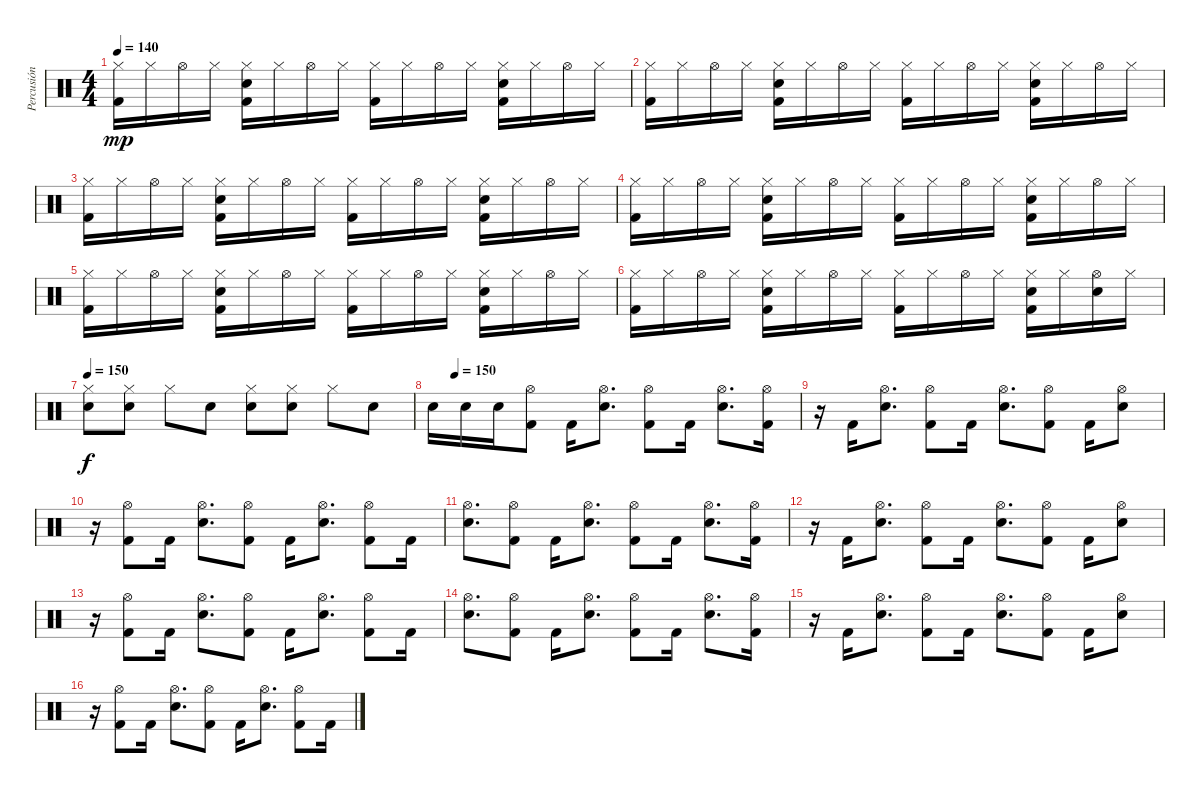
\track ("Percusión" "Percusión") {instrument percussion}
\staff {score}
\articulation defaults
\ts (4 4)
\tempo 140
\clef neutral
\ks c
("Hi-Hat (closed)" "Kick (hit) 2").16{dy mp} "Hi-Hat (closed)".16 "Hi-Hat (open)".16 "Hi-Hat (closed)".16 ("Hi-Hat (closed)" "Electric Snare (hit)" "Kick (hit) 2").16 "Hi-Hat (closed)".16 "Hi-Hat (open)".16 "Hi-Hat (closed)".16 ("Hi-Hat (closed)" "Kick (hit) 2").16 "Hi-Hat (closed)".16 "Hi-Hat (open)".16 "Hi-Hat (closed)".16 ("Hi-Hat (closed)" "Electric Snare (hit)" "Kick (hit) 2").16 "Hi-Hat (closed)".16 "Hi-Hat (open)".16 "Hi-Hat (closed)".16 |
("Hi-Hat (closed)" "Kick (hit) 2").16 "Hi-Hat (closed)".16 "Hi-Hat (open)".16 "Hi-Hat (closed)".16 ("Hi-Hat (closed)" "Electric Snare (hit)" "Kick (hit) 2").16 "Hi-Hat (closed)".16 "Hi-Hat (open)".16 "Hi-Hat (closed)".16 ("Hi-Hat (closed)" "Kick (hit) 2").16 "Hi-Hat (closed)".16 "Hi-Hat (open)".16 "Hi-Hat (closed)".16 ("Hi-Hat (closed)" "Electric Snare (hit)" "Kick (hit) 2").16 "Hi-Hat (closed)".16 "Hi-Hat (open)".16 "Hi-Hat (closed)".16 |
("Hi-Hat (closed)" "Kick (hit) 2").16 "Hi-Hat (closed)".16 "Hi-Hat (open)".16 "Hi-Hat (closed)".16 ("Hi-Hat (closed)" "Electric Snare (hit)" "Kick (hit) 2").16 "Hi-Hat (closed)".16 "Hi-Hat (open)".16 "Hi-Hat (closed)".16 ("Hi-Hat (closed)" "Kick (hit) 2").16 "Hi-Hat (closed)".16 "Hi-Hat (open)".16 "Hi-Hat (closed)".16 ("Hi-Hat (closed)" "Electric Snare (hit)" "Kick (hit) 2").16 "Hi-Hat (closed)".16 "Hi-Hat (open)".16 "Hi-Hat (closed)".16 |
("Hi-Hat (closed)" "Kick (hit) 2").16 "Hi-Hat (closed)".16 "Hi-Hat (open)".16 "Hi-Hat (closed)".16 ("Hi-Hat (closed)" "Electric Snare (hit)" "Kick (hit) 2").16 "Hi-Hat (closed)".16 "Hi-Hat (open)".16 "Hi-Hat (closed)".16 ("Hi-Hat (closed)" "Kick (hit) 2").16 "Hi-Hat (closed)".16 "Hi-Hat (open)".16 "Hi-Hat (closed)".16 ("Hi-Hat (closed)" "Electric Snare (hit)" "Kick (hit) 2").16 "Hi-Hat (closed)".16 "Hi-Hat (open)".16 "Hi-Hat (closed)".16 |
("Hi-Hat (closed)" "Kick (hit) 2").16 "Hi-Hat (closed)".16 "Hi-Hat (open)".16 "Hi-Hat (closed)".16 ("Hi-Hat (closed)" "Electric Snare (hit)" "Kick (hit) 2").16 "Hi-Hat (closed)".16 "Hi-Hat (open)".16 "Hi-Hat (closed)".16 ("Hi-Hat (closed)" "Kick (hit) 2").16 "Hi-Hat (closed)".16 "Hi-Hat (open)".16 "Hi-Hat (closed)".16 ("Hi-Hat (closed)" "Electric Snare (hit)" "Kick (hit) 2").16 "Hi-Hat (closed)".16 "Hi-Hat (open)".16 "Hi-Hat (closed)".16 |
("Hi-Hat (closed)" "Kick (hit) 2").16 "Hi-Hat (closed)".16 "Hi-Hat (open)".16 "Hi-Hat (closed)".16 ("Hi-Hat (closed)" "Electric Snare (hit)" "Kick (hit) 2").16 "Hi-Hat (closed)".16 "Hi-Hat (open)".16 "Hi-Hat (closed)".16 ("Hi-Hat (closed)" "Kick (hit) 2").16 "Hi-Hat (closed)".16 "Hi-Hat (open)".16 "Hi-Hat (closed)".16 ("Hi-Hat (closed)" "Electric Snare (hit)" "Kick (hit) 2").16 "Hi-Hat (closed)".16 ("Hi-Hat (open)" "Electric Snare (hit)").16 "Hi-Hat (closed)".16 |
\tempo 150
("Hi-Hat (closed)" "Electric Snare (hit)").8{dy f} ("Hi-Hat (closed)" "Electric Snare (hit)").8 "Hi-Hat (closed)".8 "Electric Snare (hit)".8 ("Hi-Hat (closed)" "Electric Snare (hit)").8 ("Hi-Hat (closed)" "Electric Snare (hit)").8 "Hi-Hat (closed)".8 "Electric Snare (hit)".8 |
\tempo (150 0.0625)
"Electric Snare (hit)".16 "Electric Snare (hit)".16 "Electric Snare (hit)".16 ("Hi-Hat (open)" "Kick (hit) 2").8 "Kick (hit) 2".16 ("Hi-Hat (open)" "Electric Snare (hit)").8{d} ("Hi-Hat (open)" "Kick (hit) 2").8 "Kick (hit) 2".16 ("Hi-Hat (open)" "Electric Snare (hit)").8{d} ("Hi-Hat (open)" "Kick (hit) 2").16 |
r.16 "Kick (hit) 2".16 ("Hi-Hat (open)" "Electric Snare (hit)").8{d} ("Hi-Hat (open)" "Kick (hit) 2").8 "Kick (hit) 2".16 ("Hi-Hat (open)" "Electric Snare (hit)").8{d} ("Hi-Hat (open)" "Kick (hit) 2").8 "Kick (hit) 2".16 ("Hi-Hat (open)" "Electric Snare (hit)").8 |
r.16 ("Hi-Hat (open)" "Kick (hit) 2").8 "Kick (hit) 2".16 ("Hi-Hat (open)" "Electric Snare (hit)").8{d} ("Hi-Hat (open)" "Kick (hit) 2").8 "Kick (hit) 2".16 ("Hi-Hat (open)" "Electric Snare (hit)").8{d} ("Hi-Hat (open)" "Kick (hit) 2").8 "Kick (hit) 2".16 |
("Hi-Hat (open)" "Electric Snare (hit)").8{d} ("Hi-Hat (open)" "Kick (hit) 2").8 "Kick (hit) 2".16 ("Hi-Hat (open)" "Electric Snare (hit)").8{d} ("Hi-Hat (open)" "Kick (hit) 2").8 "Kick (hit) 2".16 ("Hi-Hat (open)" "Electric Snare (hit)").8{d} ("Hi-Hat (open)" "Kick (hit) 2").16 |
r.16 "Kick (hit) 2".16 ("Hi-Hat (open)" "Electric Snare (hit)").8{d} ("Hi-Hat (open)" "Kick (hit) 2").8 "Kick (hit) 2".16 ("Hi-Hat (open)" "Electric Snare (hit)").8{d} ("Hi-Hat (open)" "Kick (hit) 2").8 "Kick (hit) 2".16 ("Hi-Hat (open)" "Electric Snare (hit)").8 |
r.16 ("Hi-Hat (open)" "Kick (hit) 2").8 "Kick (hit) 2".16 ("Hi-Hat (open)" "Electric Snare (hit)").8{d} ("Hi-Hat (open)" "Kick (hit) 2").8 "Kick (hit) 2".16 ("Hi-Hat (open)" "Electric Snare (hit)").8{d} ("Hi-Hat (open)" "Kick (hit) 2").8 "Kick (hit) 2".16 |
("Hi-Hat (open)" "Electric Snare (hit)").8{d} ("Hi-Hat (open)" "Kick (hit) 2").8 "Kick (hit) 2".16 ("Hi-Hat (open)" "Electric Snare (hit)").8{d} ("Hi-Hat (open)" "Kick (hit) 2").8 "Kick (hit) 2".16 ("Hi-Hat (open)" "Electric Snare (hit)").8{d} ("Hi-Hat (open)" "Kick (hit) 2").16 |
r.16 "Kick (hit) 2".16 ("Hi-Hat (open)" "Electric Snare (hit)").8{d} ("Hi-Hat (open)" "Kick (hit) 2").8 "Kick (hit) 2".16 ("Hi-Hat (open)" "Electric Snare (hit)").8{d} ("Hi-Hat (open)" "Kick (hit) 2").8 "Kick (hit) 2".16 ("Hi-Hat (open)" "Electric Snare (hit)").8 |
r.16 ("Hi-Hat (open)" "Kick (hit) 2").8 "Kick (hit) 2".16 ("Hi-Hat (open)" "Electric Snare (hit)").8{d} ("Hi-Hat (open)" "Kick (hit) 2").8 "Kick (hit) 2".16 ("Hi-Hat (open)" "Electric Snare (hit)").8{d} ("Hi-Hat (open)" "Kick (hit) 2").8 "Kick (hit) 2".16
